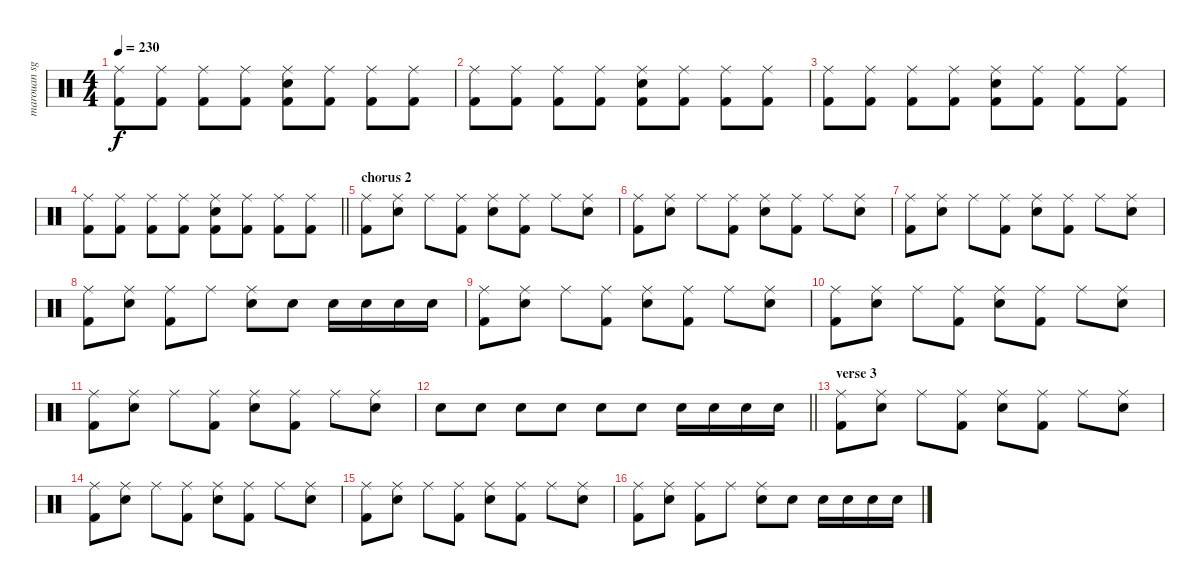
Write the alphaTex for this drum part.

\track ("marouan sghir" "marouan sg") {instrument percussion}
\staff {score}
\articulation defaults
\ts (4 4)
\tempo 230
\clef neutral
\ks c
("Ride (middle)" "Kick (hit) 2").8{dy f} ("Ride (middle)" "Kick (hit) 2").8 ("Ride (middle)" "Kick (hit) 2").8 ("Ride (middle)" "Kick (hit) 2").8 ("Ride (middle)" "Snare (hit) 2" "Kick (hit) 2").8 ("Ride (middle)" "Kick (hit) 2").8 ("Ride (middle)" "Kick (hit) 2").8 ("Ride (middle)" "Kick (hit) 2").8 |
("Ride (middle)" "Kick (hit) 2").8 ("Ride (middle)" "Kick (hit) 2").8 ("Ride (middle)" "Kick (hit) 2").8 ("Ride (middle)" "Kick (hit) 2").8 ("Ride (middle)" "Snare (hit) 2" "Kick (hit) 2").8 ("Ride (middle)" "Kick (hit) 2").8 ("Ride (middle)" "Kick (hit) 2").8 ("Ride (middle)" "Kick (hit) 2").8 |
("Ride (middle)" "Kick (hit) 2").8 ("Ride (middle)" "Kick (hit) 2").8 ("Ride (middle)" "Kick (hit) 2").8 ("Ride (middle)" "Kick (hit) 2").8 ("Ride (middle)" "Snare (hit) 2" "Kick (hit) 2").8 ("Ride (middle)" "Kick (hit) 2").8 ("Ride (middle)" "Kick (hit) 2").8 ("Ride (middle)" "Kick (hit) 2").8 |
\barLineRight lightlight
("Ride (middle)" "Kick (hit) 2").8 ("Ride (middle)" "Kick (hit) 2").8 ("Ride (middle)" "Kick (hit) 2").8 ("Ride (middle)" "Kick (hit) 2").8 ("Ride (middle)" "Snare (hit) 2" "Kick (hit) 2").8 ("Ride (middle)" "Kick (hit) 2").8 ("Ride (middle)" "Kick (hit) 2").8 ("Ride (middle)" "Kick (hit) 2").8 |
\section ("" "chorus 2")
("Ride (middle)" "Kick (hit) 2").8 ("Ride (middle)" "Snare (hit) 2").8 "Ride (middle)".8 ("Ride (middle)" "Kick (hit) 2").8 ("Ride (middle)" "Snare (hit) 2").8 ("Ride (middle)" "Kick (hit) 2").8 "Ride (middle)".8 ("Ride (middle)" "Snare (hit) 2").8 |
("Ride (middle)" "Kick (hit) 2").8 ("Ride (middle)" "Snare (hit) 2").8 "Ride (middle)".8 ("Ride (middle)" "Kick (hit) 2").8 ("Ride (middle)" "Snare (hit) 2").8 ("Ride (middle)" "Kick (hit) 2").8 "Ride (middle)".8 ("Ride (middle)" "Snare (hit) 2").8 |
("Ride (middle)" "Kick (hit) 2").8 ("Ride (middle)" "Snare (hit) 2").8 "Ride (middle)".8 ("Ride (middle)" "Kick (hit) 2").8 ("Ride (middle)" "Snare (hit) 2").8 ("Ride (middle)" "Kick (hit) 2").8 "Ride (middle)".8 ("Ride (middle)" "Snare (hit) 2").8 |
("Ride (middle)" "Kick (hit) 2").8 ("Ride (middle)" "Snare (hit) 2").8 ("Ride (middle)" "Kick (hit) 2").8 "Ride (middle)".8 ("Ride (middle)" "Snare (hit) 2").8 "Snare (hit) 2".8 "Snare (hit) 2".16 "Snare (hit) 2".16 "Snare (hit) 2".16 "Snare (hit) 2".16 |
("Ride (middle)" "Kick (hit) 2").8 ("Ride (middle)" "Snare (hit) 2").8 "Ride (middle)".8 ("Ride (middle)" "Kick (hit) 2").8 ("Ride (middle)" "Snare (hit) 2").8 ("Ride (middle)" "Kick (hit) 2").8 "Ride (middle)".8 ("Ride (middle)" "Snare (hit) 2").8 |
("Ride (middle)" "Kick (hit) 2").8 ("Ride (middle)" "Snare (hit) 2").8 "Ride (middle)".8 ("Ride (middle)" "Kick (hit) 2").8 ("Ride (middle)" "Snare (hit) 2").8 ("Ride (middle)" "Kick (hit) 2").8 "Ride (middle)".8 ("Ride (middle)" "Snare (hit) 2").8 |
("Ride (middle)" "Kick (hit) 2").8 ("Ride (middle)" "Snare (hit) 2").8 "Ride (middle)".8 ("Ride (middle)" "Kick (hit) 2").8 ("Ride (middle)" "Snare (hit) 2").8 ("Ride (middle)" "Kick (hit) 2").8 "Ride (middle)".8 ("Ride (middle)" "Snare (hit) 2").8 |
\barLineRight lightlight "Snare (hit) 2".8 "Snare (hit) 2".8 "Snare (hit) 2".8 "Snare (hit) 2".8 "Snare (hit) 2".8 "Snare (hit) 2".8 "Snare (hit) 2".16 "Snare (hit) 2".16 "Snare (hit) 2".16 "Snare (hit) 2".16
|
\section ("" "verse 3")
("Ride (middle)" "Kick (hit) 2").8 ("Ride (middle)" "Snare (hit) 2").8 "Ride (middle)".8 ("Ride (middle)" "Kick (hit) 2").8 ("Ride (middle)" "Snare (hit) 2").8 ("Ride (middle)" "Kick (hit) 2").8 "Ride (middle)".8 ("Ride (middle)" "Snare (hit) 2").8 |
("Ride (middle)" "Kick (hit) 2").8 ("Ride (middle)" "Snare (hit) 2").8 "Ride (middle)".8 ("Ride (middle)" "Kick (hit) 2").8 ("Ride (middle)" "Snare (hit) 2").8 ("Ride (middle)" "Kick (hit) 2").8 "Ride (middle)".8 ("Ride (middle)" "Snare (hit) 2").8 |
("Ride (middle)" "Kick (hit) 2").8 ("Ride (middle)" "Snare (hit) 2").8 "Ride (middle)".8 ("Ride (middle)" "Kick (hit) 2").8 ("Ride (middle)" "Snare (hit) 2").8 ("Ride (middle)" "Kick (hit) 2").8 "Ride (middle)".8 ("Ride (middle)" "Snare (hit) 2").8 |
("Ride (middle)" "Kick (hit) 2").8 ("Ride (middle)" "Snare (hit) 2").8 ("Ride (middle)" "Kick (hit) 2").8 "Ride (middle)".8 ("Ride (middle)" "Snare (hit) 2").8 "Snare (hit) 2".8 "Snare (hit) 2".16 "Snare (hit) 2".16 "Snare (hit) 2".16 "Snare (hit) 2".16
